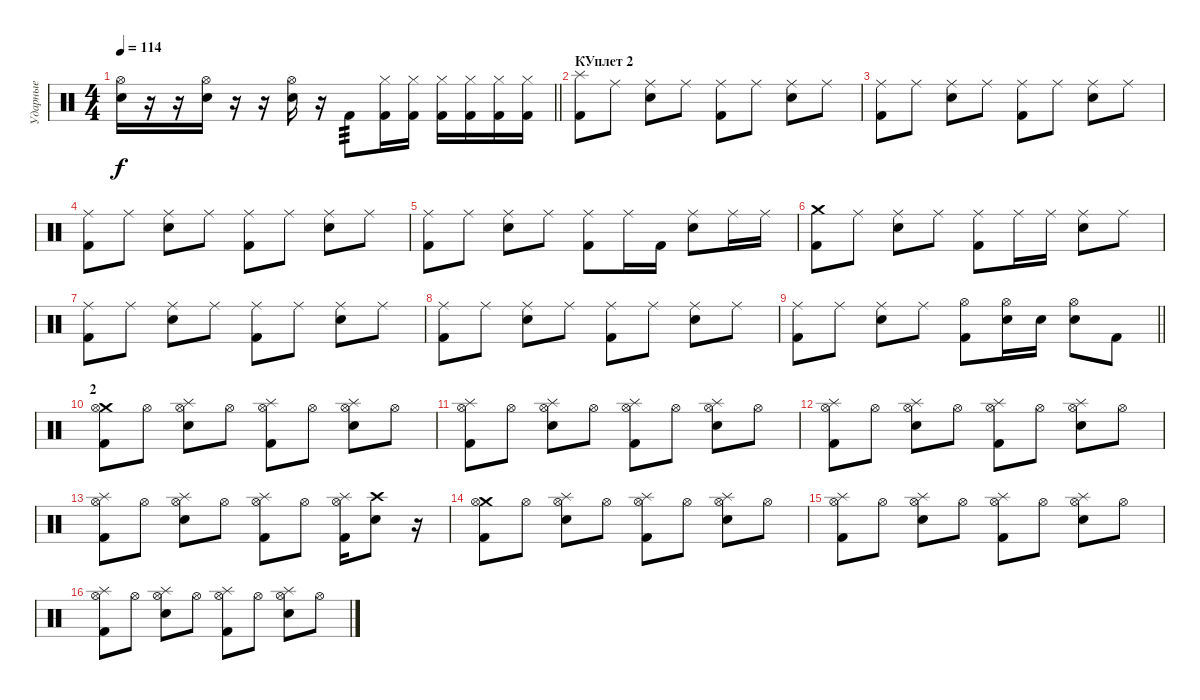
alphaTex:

\track ("Ударные" "Ударные") {instrument percussion}
\staff {score}
\articulation defaults
\ts (4 4)
\tempo 114
\clef neutral
\barLineRight lightlight
\ks c
("Hi-Hat (open)" "Snare (hit) 2").16{dy f} r.16 r.16 ("Hi-Hat (open)" "Snare (hit) 2").16 r.16 r.16 ("Hi-Hat (open)" "Snare (hit) 2").16 r.16 "Kick (hit) 2".8{tp 3} ("Hi-Hat (closed)" "Kick (hit) 2").16 ("Hi-Hat (closed)" "Kick (hit) 2").16 ("Hi-Hat (closed)" "Kick (hit) 2").16 ("Hi-Hat (closed)" "Kick (hit) 2").16 ("Hi-Hat (closed)" "Kick (hit) 2").16 ("Hi-Hat (closed)" "Kick (hit) 2").16 |
\section ("" "КУплет 2")
("Splash (hit)" "Kick (hit) 2").8 "Ride (middle)".8 ("Ride (middle)" "Snare (hit) 2").8 "Ride (middle)".8 ("Ride (middle)" "Kick (hit) 2").8 "Ride (middle)".8 ("Ride (middle)" "Snare (hit) 2").8 "Ride (middle)".8 |
("Ride (middle)" "Kick (hit) 2").8 "Ride (middle)".8 ("Ride (middle)" "Snare (hit) 2").8 "Ride (middle)".8 ("Ride (middle)" "Kick (hit) 2").8 "Ride (middle)".8 ("Ride (middle)" "Snare (hit) 2").8 "Ride (middle)".8 |
("Ride (middle)" "Kick (hit) 2").8 "Ride (middle)".8 ("Ride (middle)" "Snare (hit) 2").8 "Ride (middle)".8 ("Ride (middle)" "Kick (hit) 2").8 "Ride (middle)".8 ("Ride (middle)" "Snare (hit) 2").8 "Ride (middle)".8 |
("Ride (middle)" "Kick (hit) 2").8 "Ride (middle)".8 ("Ride (middle)" "Snare (hit) 2").8 "Ride (middle)".8 ("Ride (middle)" "Kick (hit) 2").8 "Ride (middle)".16 "Kick (hit) 2".16 ("Ride (middle)" "Snare (hit) 2").8 "Ride (middle)".16 "Ride (middle)".16 |
("Crash medium (hit)" "Kick (hit) 2").8 "Ride (middle)".8 ("Ride (middle)" "Snare (hit) 2").8 "Ride (middle)".8 ("Ride (middle)" "Kick (hit) 2").8 "Ride (middle)".16 "Ride (middle)".16 ("Ride (middle)" "Snare (hit) 2").8 "Ride (middle)".8 |
("Ride (middle)" "Kick (hit) 2").8 "Ride (middle)".8 ("Ride (middle)" "Snare (hit) 2").8 "Ride (middle)".8 ("Ride (middle)" "Kick (hit) 2").8 "Ride (middle)".8 ("Ride (middle)" "Snare (hit) 2").8 "Ride (middle)".8 |
("Ride (middle)" "Kick (hit) 2").8 "Ride (middle)".8 ("Ride (middle)" "Snare (hit) 2").8 "Ride (middle)".8 ("Ride (middle)" "Kick (hit) 2").8 "Ride (middle)".8 ("Ride (middle)" "Snare (hit) 2").8 "Ride (middle)".8 |
\barLineRight lightlight
("Ride (middle)" "Kick (hit) 2").8 "Ride (middle)".8 ("Ride (middle)" "Snare (hit) 2").8 "Ride (middle)".8 ("Hi-Hat (open)" "Kick (hit) 2").8 ("Hi-Hat (open)" "Snare (hit) 2").16 "Snare (hit) 2".16 ("Hi-Hat (open)" "Snare (hit) 2").8 "Kick (hit) 2".8 |
\section ("" "2")
("Crash medium (hit)" "Hi-Hat (open)" "Kick (hit) 2").8 "Hi-Hat (open)".8 ("Splash (hit)" "Hi-Hat (open)" "Snare (hit) 2").8 "Hi-Hat (open)".8 ("Splash (hit)" "Hi-Hat (open)" "Kick (hit) 2").8 "Hi-Hat (open)".8 ("Splash (hit)" "Hi-Hat (open)" "Snare (hit) 2").8 "Hi-Hat (open)".8 |
("Splash (hit)" "Hi-Hat (open)" "Kick (hit) 2").8 "Hi-Hat (open)".8 ("Splash (hit)" "Hi-Hat (open)" "Snare (hit) 2").8 "Hi-Hat (open)".8 ("Splash (hit)" "Hi-Hat (open)" "Kick (hit) 2").8 "Hi-Hat (open)".8 ("Splash (hit)" "Hi-Hat (open)" "Snare (hit) 2").8 "Hi-Hat (open)".8 |
("Splash (hit)" "Hi-Hat (open)" "Kick (hit) 2").8 "Hi-Hat (open)".8 ("Splash (hit)" "Hi-Hat (open)" "Snare (hit) 2").8 "Hi-Hat (open)".8 ("Splash (hit)" "Hi-Hat (open)" "Kick (hit) 2").8 "Hi-Hat (open)".8 ("Splash (hit)" "Hi-Hat (open)" "Snare (hit) 2").8 "Hi-Hat (open)".8 |
("Splash (hit)" "Hi-Hat (open)" "Kick (hit) 2").8 "Hi-Hat (open)".8 ("Splash (hit)" "Hi-Hat (open)" "Snare (hit) 2").8 "Hi-Hat (open)".8 ("Splash (hit)" "Hi-Hat (open)" "Kick (hit) 2").8 "Hi-Hat (open)".8 ("Splash (hit)" "Hi-Hat (open)" "Kick (hit) 2").16 ("Crash high (hit)" "Snare (hit) 2").8 r.16 |
("Crash medium (hit)" "Hi-Hat (open)" "Kick (hit) 2").8 "Hi-Hat (open)".8 ("Splash (hit)" "Hi-Hat (open)" "Snare (hit) 2").8 "Hi-Hat (open)".8 ("Splash (hit)" "Hi-Hat (open)" "Kick (hit) 2").8 "Hi-Hat (open)".8 ("Splash (hit)" "Hi-Hat (open)" "Snare (hit) 2").8 "Hi-Hat (open)".8 |
("Splash (hit)" "Hi-Hat (open)" "Kick (hit) 2").8 "Hi-Hat (open)".8 ("Splash (hit)" "Hi-Hat (open)" "Snare (hit) 2").8 "Hi-Hat (open)".8 ("Splash (hit)" "Hi-Hat (open)" "Kick (hit) 2").8 "Hi-Hat (open)".8 ("Splash (hit)" "Hi-Hat (open)" "Snare (hit) 2").8 "Hi-Hat (open)".8 |
("Splash (hit)" "Hi-Hat (open)" "Kick (hit) 2").8 "Hi-Hat (open)".8 ("Splash (hit)" "Hi-Hat (open)" "Snare (hit) 2").8 "Hi-Hat (open)".8 ("Splash (hit)" "Hi-Hat (open)" "Kick (hit) 2").8 "Hi-Hat (open)".8 ("Splash (hit)" "Hi-Hat (open)" "Snare (hit) 2").8 "Hi-Hat (open)".8
